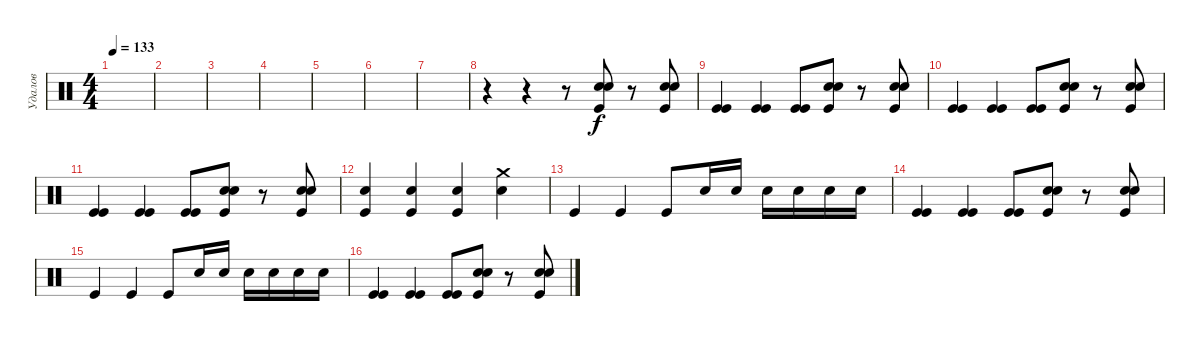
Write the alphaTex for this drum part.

\track ("Удалов" "Удалов") {instrument percussion}
\staff {score}
\articulation defaults
\ts (4 4)
\tempo 133
\clef neutral
\ks c
|
|
|
|
|
|
|
r.4 r.4 r.8 ("Electric Snare (hit)" "Electric Snare (hit)" "Kick (hit)").8 r.8 ("Electric Snare (hit)" "Electric Snare (hit)" "Kick (hit)").8 |
("Kick (hit)" "Kick (hit)").4 ("Kick (hit)" "Kick (hit)").4 ("Kick (hit)" "Kick (hit)").8 ("Electric Snare (hit)" "Electric Snare (hit)" "Kick (hit)").8 r.8 ("Electric Snare (hit)" "Electric Snare (hit)" "Kick (hit)").8 |
("Kick (hit)" "Kick (hit)").4 ("Kick (hit)" "Kick (hit)").4 ("Kick (hit)" "Kick (hit)").8 ("Electric Snare (hit)" "Electric Snare (hit)" "Kick (hit)").8 r.8 ("Electric Snare (hit)" "Electric Snare (hit)" "Kick (hit)").8 |
("Kick (hit)" "Kick (hit)").4 ("Kick (hit)" "Kick (hit)").4 ("Kick (hit)" "Kick (hit)").8 ("Electric Snare (hit)" "Electric Snare (hit)" "Kick (hit)").8 r.8 ("Electric Snare (hit)" "Electric Snare (hit)" "Kick (hit)").8 |
("Electric Snare (hit)" "Kick (hit)").4 ("Electric Snare (hit)" "Kick (hit)").4 ("Electric Snare (hit)" "Kick (hit)").4 ("Crash medium (hit)" "Electric Snare (hit)").4 |
"Kick (hit)".4 "Kick (hit)".4 "Kick (hit)".8 "Electric Snare (hit)".16 "Electric Snare (hit)".16 "Electric Snare (hit)".16 "Electric Snare (hit)".16 "Electric Snare (hit)".16 "Electric Snare (hit)".16 |
("Kick (hit)" "Kick (hit)").4 ("Kick (hit)" "Kick (hit)").4 ("Kick (hit)" "Kick (hit)").8 ("Electric Snare (hit)" "Electric Snare (hit)" "Kick (hit)").8 r.8 ("Electric Snare (hit)" "Electric Snare (hit)" "Kick (hit)").8 |
"Kick (hit)".4 "Kick (hit)".4 "Kick (hit)".8 "Electric Snare (hit)".16 "Electric Snare (hit)".16 "Electric Snare (hit)".16 "Electric Snare (hit)".16 "Electric Snare (hit)".16 "Electric Snare (hit)".16 |
("Kick (hit)" "Kick (hit)").4 ("Kick (hit)" "Kick (hit)").4 ("Kick (hit)" "Kick (hit)").8 ("Electric Snare (hit)" "Electric Snare (hit)" "Kick (hit)").8 r.8 ("Electric Snare (hit)" "Electric Snare (hit)" "Kick (hit)").8
